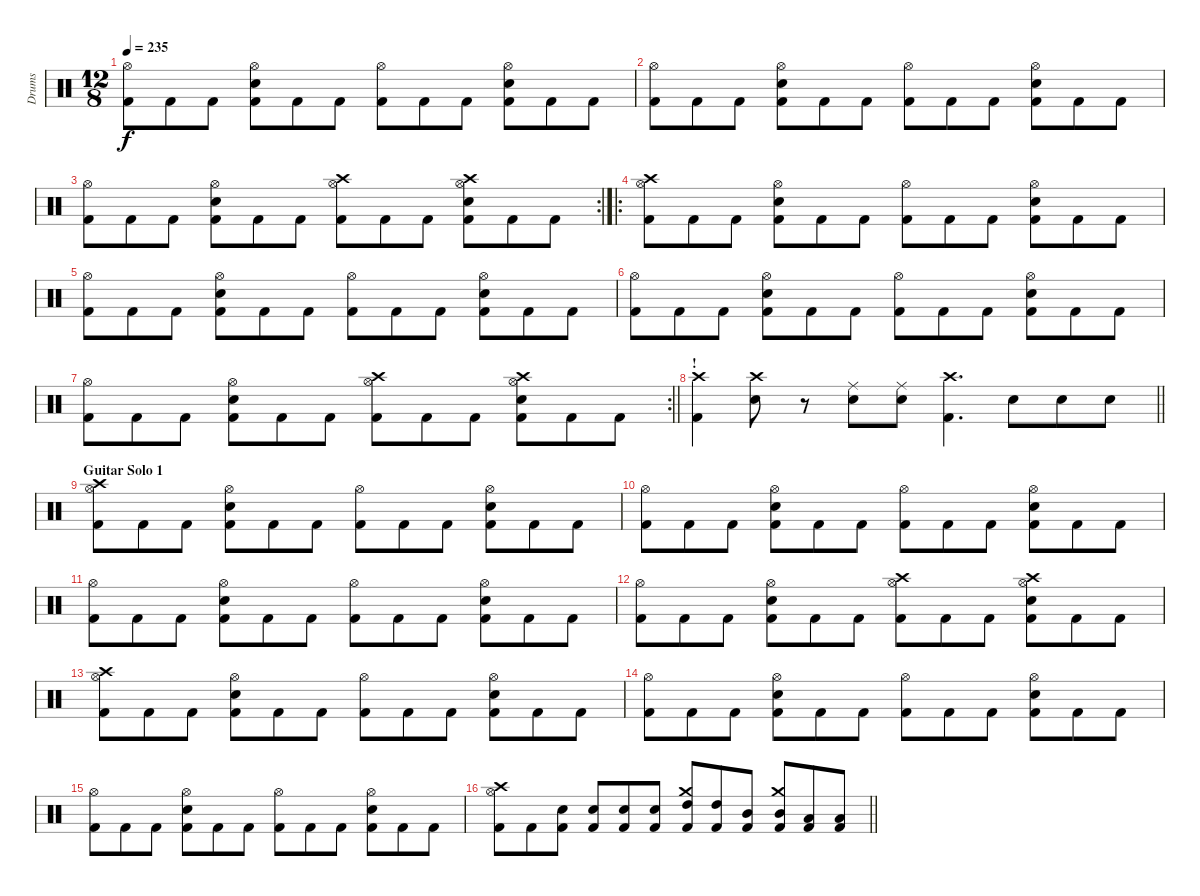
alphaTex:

\track ("Drums" "Drums") {instrument percussion}
\staff {score}
\articulation defaults
\ts (12 8)
\tempo 235
\clef neutral
\ks c
("Hi-Hat (open)" "Kick (hit) 2").8{dy f} "Kick (hit) 2".8 "Kick (hit) 2".8 ("Hi-Hat (open)" "Snare (hit) 2" "Kick (hit) 2").8 "Kick (hit) 2".8 "Kick (hit) 2".8 ("Hi-Hat (open)" "Kick (hit) 2").8 "Kick (hit) 2".8 "Kick (hit) 2".8 ("Hi-Hat (open)" "Snare (hit) 2" "Kick (hit) 2").8 "Kick (hit) 2".8 "Kick (hit) 2".8 |
("Hi-Hat (open)" "Kick (hit) 2").8 "Kick (hit) 2".8 "Kick (hit) 2".8 ("Hi-Hat (open)" "Snare (hit) 2" "Kick (hit) 2").8 "Kick (hit) 2".8 "Kick (hit) 2".8 ("Hi-Hat (open)" "Kick (hit) 2").8 "Kick (hit) 2".8 "Kick (hit) 2".8 ("Hi-Hat (open)" "Snare (hit) 2" "Kick (hit) 2").8 "Kick (hit) 2".8 "Kick (hit) 2".8 |
\rc 2
("Hi-Hat (open)" "Kick (hit) 2").8 "Kick (hit) 2".8 "Kick (hit) 2".8 ("Hi-Hat (open)" "Snare (hit) 2" "Kick (hit) 2").8 "Kick (hit) 2".8 "Kick (hit) 2".8 ("Crash high (hit)" "Hi-Hat (open)" "Kick (hit) 2").8 "Kick (hit) 2".8 "Kick (hit) 2".8 ("Crash high (hit)" "Hi-Hat (open)" "Snare (hit) 2" "Kick (hit) 2").8 "Kick (hit) 2".8 "Kick (hit) 2".8 |
\ro
("Crash high (hit)" "Hi-Hat (open)" "Kick (hit) 2").8 "Kick (hit) 2".8 "Kick (hit) 2".8 ("Hi-Hat (open)" "Snare (hit) 2" "Kick (hit) 2").8 "Kick (hit) 2".8 "Kick (hit) 2".8 ("Hi-Hat (open)" "Kick (hit) 2").8 "Kick (hit) 2".8 "Kick (hit) 2".8 ("Hi-Hat (open)" "Snare (hit) 2" "Kick (hit) 2").8 "Kick (hit) 2".8 "Kick (hit) 2".8 |
("Hi-Hat (open)" "Kick (hit) 2").8 "Kick (hit) 2".8 "Kick (hit) 2".8 ("Hi-Hat (open)" "Snare (hit) 2" "Kick (hit) 2").8 "Kick (hit) 2".8 "Kick (hit) 2".8 ("Hi-Hat (open)" "Kick (hit) 2").8 "Kick (hit) 2".8 "Kick (hit) 2".8 ("Hi-Hat (open)" "Snare (hit) 2" "Kick (hit) 2").8 "Kick (hit) 2".8 "Kick (hit) 2".8 |
("Hi-Hat (open)" "Kick (hit) 2").8 "Kick (hit) 2".8 "Kick (hit) 2".8 ("Hi-Hat (open)" "Snare (hit) 2" "Kick (hit) 2").8 "Kick (hit) 2".8 "Kick (hit) 2".8 ("Hi-Hat (open)" "Kick (hit) 2").8 "Kick (hit) 2".8 "Kick (hit) 2".8 ("Hi-Hat (open)" "Snare (hit) 2" "Kick (hit) 2").8 "Kick (hit) 2".8 "Kick (hit) 2".8 |
\rc 2
\barLineRight lightlight
("Hi-Hat (open)" "Kick (hit) 2").8 "Kick (hit) 2".8 "Kick (hit) 2".8 ("Hi-Hat (open)" "Snare (hit) 2" "Kick (hit) 2").8 "Kick (hit) 2".8 "Kick (hit) 2".8 ("Crash high (hit)" "Hi-Hat (open)" "Kick (hit) 2").8 "Kick (hit) 2".8 "Kick (hit) 2".8 ("Crash high (hit)" "Hi-Hat (open)" "Snare (hit) 2" "Kick (hit) 2").8 "Kick (hit) 2".8 "Kick (hit) 2".8 |
\section ("" "!")
\barLineRight lightlight
("Crash high (hit)" "Kick (hit) 2").4 ("Crash high (hit)" "Snare (hit) 2").8 r.8 ("Ride (middle)" "Snare (hit) 2").8 ("Ride (middle)" "Snare (hit) 2").8 ("Crash high (hit)" "Kick (hit) 2").4{d} "Snare (hit) 2".8 "Snare (hit) 2".8 "Snare (hit) 2".8 |
\section ("" "Guitar Solo 1")
("Crash high (hit)" "Hi-Hat (open)" "Kick (hit) 2").8 "Kick (hit) 2".8 "Kick (hit) 2".8 ("Hi-Hat (open)" "Snare (hit) 2" "Kick (hit) 2").8 "Kick (hit) 2".8 "Kick (hit) 2".8 ("Hi-Hat (open)" "Kick (hit) 2").8 "Kick (hit) 2".8 "Kick (hit) 2".8 ("Hi-Hat (open)" "Snare (hit) 2" "Kick (hit) 2").8 "Kick (hit) 2".8 "Kick (hit) 2".8 |
("Hi-Hat (open)" "Kick (hit) 2").8 "Kick (hit) 2".8 "Kick (hit) 2".8 ("Hi-Hat (open)" "Snare (hit) 2" "Kick (hit) 2").8 "Kick (hit) 2".8 "Kick (hit) 2".8 ("Hi-Hat (open)" "Kick (hit) 2").8 "Kick (hit) 2".8 "Kick (hit) 2".8 ("Hi-Hat (open)" "Snare (hit) 2" "Kick (hit) 2").8 "Kick (hit) 2".8 "Kick (hit) 2".8 |
("Hi-Hat (open)" "Kick (hit) 2").8 "Kick (hit) 2".8 "Kick (hit) 2".8 ("Hi-Hat (open)" "Snare (hit) 2" "Kick (hit) 2").8 "Kick (hit) 2".8 "Kick (hit) 2".8 ("Hi-Hat (open)" "Kick (hit) 2").8 "Kick (hit) 2".8 "Kick (hit) 2".8 ("Hi-Hat (open)" "Snare (hit) 2" "Kick (hit) 2").8 "Kick (hit) 2".8 "Kick (hit) 2".8 |
("Hi-Hat (open)" "Kick (hit) 2").8 "Kick (hit) 2".8 "Kick (hit) 2".8 ("Hi-Hat (open)" "Snare (hit) 2" "Kick (hit) 2").8 "Kick (hit) 2".8 "Kick (hit) 2".8 ("Crash high (hit)" "Hi-Hat (open)" "Kick (hit) 2").8 "Kick (hit) 2".8 "Kick (hit) 2".8 ("Crash high (hit)" "Hi-Hat (open)" "Snare (hit) 2" "Kick (hit) 2").8 "Kick (hit) 2".8 "Kick (hit) 2".8 |
("Crash high (hit)" "Hi-Hat (open)" "Kick (hit) 2").8 "Kick (hit) 2".8 "Kick (hit) 2".8 ("Hi-Hat (open)" "Snare (hit) 2" "Kick (hit) 2").8 "Kick (hit) 2".8 "Kick (hit) 2".8 ("Hi-Hat (open)" "Kick (hit) 2").8 "Kick (hit) 2".8 "Kick (hit) 2".8 ("Hi-Hat (open)" "Snare (hit) 2" "Kick (hit) 2").8 "Kick (hit) 2".8 "Kick (hit) 2".8 |
("Hi-Hat (open)" "Kick (hit) 2").8 "Kick (hit) 2".8 "Kick (hit) 2".8 ("Hi-Hat (open)" "Snare (hit) 2" "Kick (hit) 2").8 "Kick (hit) 2".8 "Kick (hit) 2".8 ("Hi-Hat (open)" "Kick (hit) 2").8 "Kick (hit) 2".8 "Kick (hit) 2".8 ("Hi-Hat (open)" "Snare (hit) 2" "Kick (hit) 2").8 "Kick (hit) 2".8 "Kick (hit) 2".8 |
("Hi-Hat (open)" "Kick (hit) 2").8 "Kick (hit) 2".8 "Kick (hit) 2".8 ("Hi-Hat (open)" "Snare (hit) 2" "Kick (hit) 2").8 "Kick (hit) 2".8 "Kick (hit) 2".8 ("Hi-Hat (open)" "Kick (hit) 2").8 "Kick (hit) 2".8 "Kick (hit) 2".8 ("Hi-Hat (open)" "Snare (hit) 2" "Kick (hit) 2").8 "Kick (hit) 2".8 "Kick (hit) 2".8 |
\barLineRight lightlight
("Crash high (hit)" "Hi-Hat (open)" "Kick (hit) 2").8 "Kick (hit) 2".8 ("Snare (hit) 2" "Kick (hit) 2").8 ("Snare (hit) 2" "Kick (hit) 2").8 ("Snare (hit) 2" "Kick (hit) 2").8 ("Snare (hit) 2" "Kick (hit) 2").8 ("Crash medium (hit)" "High Tom (hit)" "Kick (hit) 2").8 ("High Tom (hit)" "Kick (hit) 2").8 ("Mid Tom (hit)" "Kick (hit) 2").8 ("Crash medium (hit)" "Mid Tom (hit)" "Kick (hit) 2").8 ("Low Tom (hit)" "Kick (hit) 2").8 ("Low Tom (hit)" "Kick (hit) 2").8
